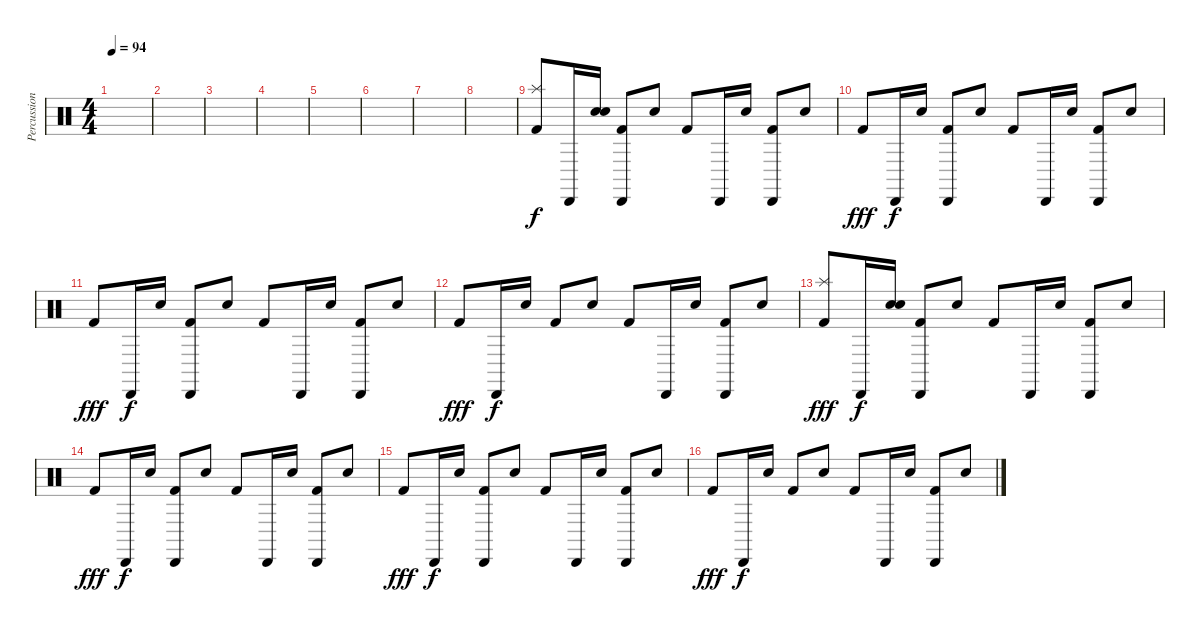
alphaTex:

\track ("Percussions" "Percussion") {instrument percussion}
\staff {score}
\articulation defaults
\ts (4 4)
\tempo 94
\clef neutral
\ks c
|
|
|
|
|
|
|
|
("Splash (hit)" "Kick (hit) 2").8 "Cabasa (hit)".16{dy f} ("Snare (hit) 2" "Electric Snare (hit)").16 ("Cabasa (hit)" "Kick (hit) 2").8 "Electric Snare (hit)".8 "Kick (hit) 2".8 "Cabasa (hit)".16 "Electric Snare (hit)".16 ("Cabasa (hit)" "Kick (hit) 2").8 "Electric Snare (hit)".8 |
"Kick (hit) 2".8{dy fff} "Cabasa (hit)".16{dy f} "Electric Snare (hit)".16 ("Cabasa (hit)" "Kick (hit) 2").8 "Electric Snare (hit)".8 "Kick (hit) 2".8 "Cabasa (hit)".16 "Electric Snare (hit)".16 ("Cabasa (hit)" "Kick (hit) 2").8 "Electric Snare (hit)".8 |
"Kick (hit) 2".8{dy fff} "Cabasa (hit)".16{dy f} "Electric Snare (hit)".16 ("Cabasa (hit)" "Kick (hit) 2").8 "Electric Snare (hit)".8 "Kick (hit) 2".8 "Cabasa (hit)".16 "Electric Snare (hit)".16 ("Cabasa (hit)" "Kick (hit) 2").8 "Electric Snare (hit)".8 |
"Kick (hit) 2".8{dy fff} "Cabasa (hit)".16{dy f} "Electric Snare (hit)".16 "Kick (hit) 2".8 "Electric Snare (hit)".8 "Kick (hit) 2".8 "Cabasa (hit)".16 "Electric Snare (hit)".16 ("Cabasa (hit)" "Kick (hit) 2").8 "Electric Snare (hit)".8 |
("Splash (hit)" "Kick (hit) 2").8{dy fff} "Cabasa (hit)".16{dy f} ("Snare (hit) 2" "Electric Snare (hit)").16 ("Cabasa (hit)" "Kick (hit) 2").8 "Electric Snare (hit)".8 "Kick (hit) 2".8 "Cabasa (hit)".16 "Electric Snare (hit)".16 ("Cabasa (hit)" "Kick (hit) 2").8 "Electric Snare (hit)".8 |
"Kick (hit) 2".8{dy fff} "Cabasa (hit)".16{dy f} "Electric Snare (hit)".16 ("Cabasa (hit)" "Kick (hit) 2").8 "Electric Snare (hit)".8 "Kick (hit) 2".8 "Cabasa (hit)".16 "Electric Snare (hit)".16 ("Cabasa (hit)" "Kick (hit) 2").8 "Electric Snare (hit)".8 |
"Kick (hit) 2".8{dy fff} "Cabasa (hit)".16{dy f} "Electric Snare (hit)".16 ("Cabasa (hit)" "Kick (hit) 2").8 "Electric Snare (hit)".8 "Kick (hit) 2".8 "Cabasa (hit)".16 "Electric Snare (hit)".16 ("Cabasa (hit)" "Kick (hit) 2").8 "Electric Snare (hit)".8 |
"Kick (hit) 2".8{dy fff} "Cabasa (hit)".16{dy f} "Electric Snare (hit)".16 "Kick (hit) 2".8 "Electric Snare (hit)".8 "Kick (hit) 2".8 "Cabasa (hit)".16 "Electric Snare (hit)".16 ("Cabasa (hit)" "Kick (hit) 2").8 "Electric Snare (hit)".8
